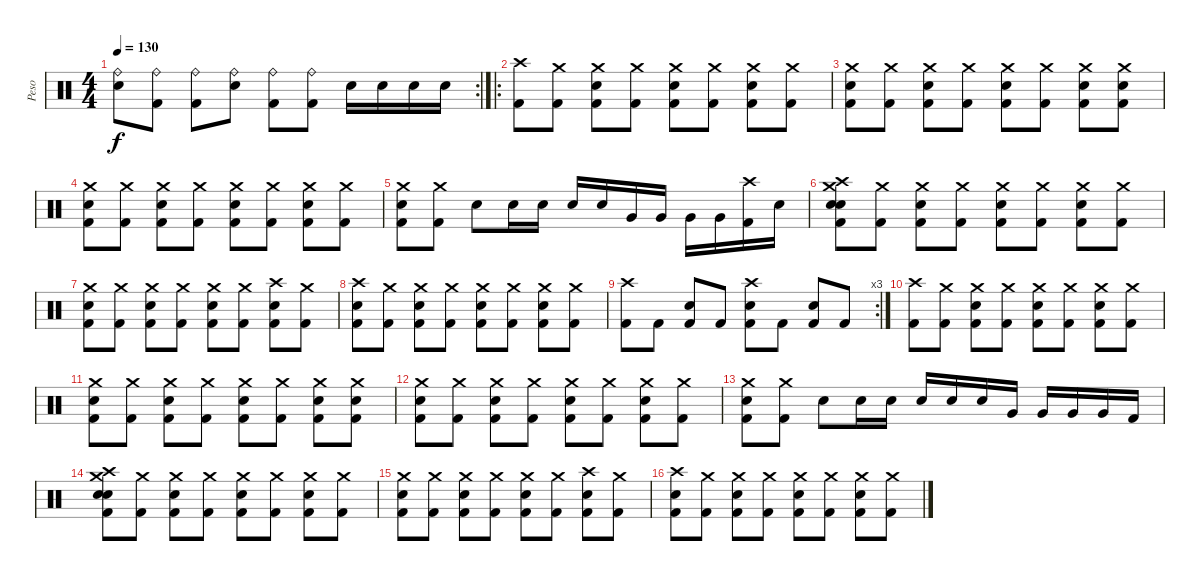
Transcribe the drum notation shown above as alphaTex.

\track ("Peso" "Peso") {instrument percussion}
\staff {score}
\articulation defaults
\rc 2
\ts (4 4)
\tempo 130
\clef neutral
\ks c
("Ride (bell)" "Snare (hit) 2").8{dy f} ("Ride (bell)" "Kick (hit) 2").8 ("Ride (bell)" "Kick (hit) 2").8 ("Ride (bell)" "Snare (hit) 2").8 ("Ride (bell)" "Kick (hit) 2").8 ("Ride (bell)" "Kick (hit) 2").8 "Snare (hit) 2".16 "Snare (hit) 2".16 "Snare (hit) 2".16 "Snare (hit) 2".16 |
\ro
("Crash high (hit)" "Kick (hit) 2").8 ("Crash medium (hit)" "Kick (hit) 2").8 ("Crash medium (hit)" "Snare (hit) 2" "Kick (hit) 2").8 ("Crash medium (hit)" "Kick (hit) 2").8 ("Crash medium (hit)" "Snare (hit) 2" "Kick (hit) 2").8 ("Crash medium (hit)" "Kick (hit) 2").8 ("Crash medium (hit)" "Snare (hit) 2" "Kick (hit) 2").8 ("Crash medium (hit)" "Kick (hit) 2").8 |
("Crash medium (hit)" "Snare (hit) 2" "Kick (hit) 2").8 ("Crash medium (hit)" "Kick (hit) 2").8 ("Crash medium (hit)" "Snare (hit) 2" "Kick (hit) 2").8 ("Crash medium (hit)" "Kick (hit) 2").8 ("Crash medium (hit)" "Snare (hit) 2" "Kick (hit) 2").8 ("Crash medium (hit)" "Kick (hit) 2").8 ("Crash medium (hit)" "Snare (hit) 2" "Kick (hit) 2").8 ("Crash medium (hit)" "Snare (hit) 2" "Kick (hit) 2").8 |
("Crash medium (hit)" "Snare (hit) 2" "Kick (hit) 2").8 ("Crash medium (hit)" "Kick (hit) 2").8 ("Crash medium (hit)" "Snare (hit) 2" "Kick (hit) 2").8 ("Crash medium (hit)" "Kick (hit) 2").8 ("Crash medium (hit)" "Snare (hit) 2" "Kick (hit) 2").8 ("Crash medium (hit)" "Kick (hit) 2").8 ("Crash medium (hit)" "Snare (hit) 2" "Kick (hit) 2").8 ("Crash medium (hit)" "Kick (hit) 2").8 |
("Crash medium (hit)" "Snare (hit) 2" "Kick (hit) 2").8 ("Crash medium (hit)" "Kick (hit) 2").8 "Snare (hit) 2".8 "Snare (hit) 2".16 "Snare (hit) 2".16 "Snare (hit) 2".16 "Snare (hit) 2".16 "Very Low Tom (hit)".16 "Very Low Tom (hit)".16 "Very Low Tom (hit)".16 "Very Low Tom (hit)".16 ("Crash high (hit)" "Kick (hit) 2").16 "Snare (hit)"{x}.16 |
("Crash high (hit)" "Crash medium (hit)" "Snare (hit) 2" "Kick (hit) 2" "Snare (hit)").8 ("Crash medium (hit)" "Kick (hit) 2").8 ("Crash medium (hit)" "Snare (hit) 2" "Kick (hit) 2").8 ("Crash medium (hit)" "Kick (hit) 2").8 ("Crash medium (hit)" "Snare (hit) 2" "Kick (hit) 2").8 ("Crash medium (hit)" "Kick (hit) 2").8 ("Crash medium (hit)" "Snare (hit) 2" "Kick (hit) 2").8 ("Crash medium (hit)" "Kick (hit) 2").8 |
("Crash medium (hit)" "Snare (hit) 2" "Kick (hit) 2").8 ("Crash medium (hit)" "Kick (hit) 2").8 ("Crash medium (hit)" "Snare (hit) 2" "Kick (hit) 2").8 ("Crash medium (hit)" "Kick (hit) 2").8 ("Crash medium (hit)" "Snare (hit) 2" "Kick (hit) 2").8 ("Crash medium (hit)" "Kick (hit) 2").8 ("Crash high (hit)" "Snare (hit) 2" "Kick (hit) 2").8 ("Crash medium (hit)" "Kick (hit) 2").8 |
("Crash high (hit)" "Snare (hit) 2" "Kick (hit) 2").8 ("Crash medium (hit)" "Kick (hit) 2").8 ("Crash medium (hit)" "Snare (hit) 2" "Kick (hit) 2").8 ("Crash medium (hit)" "Kick (hit) 2").8 ("Crash medium (hit)" "Snare (hit) 2" "Kick (hit) 2").8 ("Crash medium (hit)" "Kick (hit) 2").8 ("Crash medium (hit)" "Snare (hit) 2" "Kick (hit) 2").8 ("Crash medium (hit)" "Kick (hit) 2").8 |
\rc 3
("Crash high (hit)" "Kick (hit) 2").8 "Kick (hit) 2".8 ("Snare (hit) 2" "Kick (hit) 2").8 "Kick (hit) 2".8 ("Crash high (hit)" "Snare (hit) 2" "Kick (hit) 2").8 "Kick (hit) 2".8 ("Snare (hit) 2" "Kick (hit) 2").8 "Kick (hit) 2".8 |
("Crash high (hit)" "Kick (hit) 2").8 ("Crash medium (hit)" "Kick (hit) 2").8 ("Crash medium (hit)" "Snare (hit) 2" "Kick (hit) 2").8 ("Crash medium (hit)" "Kick (hit) 2").8 ("Crash medium (hit)" "Snare (hit) 2" "Kick (hit) 2").8 ("Crash medium (hit)" "Kick (hit) 2").8 ("Crash medium (hit)" "Snare (hit) 2" "Kick (hit) 2").8 ("Crash medium (hit)" "Kick (hit) 2").8 |
("Crash medium (hit)" "Snare (hit) 2" "Kick (hit) 2").8 ("Crash medium (hit)" "Kick (hit) 2").8 ("Crash medium (hit)" "Snare (hit) 2" "Kick (hit) 2").8 ("Crash medium (hit)" "Kick (hit) 2").8 ("Crash medium (hit)" "Snare (hit) 2" "Kick (hit) 2").8 ("Crash medium (hit)" "Kick (hit) 2").8 ("Crash medium (hit)" "Snare (hit) 2" "Kick (hit) 2").8 ("Crash medium (hit)" "Snare (hit) 2" "Kick (hit) 2").8 |
("Crash medium (hit)" "Snare (hit) 2" "Kick (hit) 2").8 ("Crash medium (hit)" "Kick (hit) 2").8 ("Crash medium (hit)" "Snare (hit) 2" "Kick (hit) 2").8 ("Crash medium (hit)" "Kick (hit) 2").8 ("Crash medium (hit)" "Snare (hit) 2" "Kick (hit) 2").8 ("Crash medium (hit)" "Kick (hit) 2").8 ("Crash medium (hit)" "Snare (hit) 2" "Kick (hit) 2").8 ("Crash medium (hit)" "Kick (hit) 2").8 |
("Crash medium (hit)" "Snare (hit) 2" "Kick (hit) 2").8 ("Crash medium (hit)" "Kick (hit) 2").8 "Snare (hit) 2".8 "Snare (hit) 2".16 "Snare (hit) 2".16 "Snare (hit) 2".16 "Snare (hit) 2".16 "Snare (hit) 2".16 "Very Low Tom (hit)".16 "Very Low Tom (hit)".16 "Very Low Tom (hit)".16 "Very Low Tom (hit)".16 "Kick (hit) 2".16 |
("Crash high (hit)" "Crash medium (hit)" "Snare (hit) 2" "Kick (hit) 2" "Snare (hit)").8 ("Crash medium (hit)" "Kick (hit) 2").8 ("Crash medium (hit)" "Snare (hit) 2" "Kick (hit) 2").8 ("Crash medium (hit)" "Kick (hit) 2").8 ("Crash medium (hit)" "Snare (hit) 2" "Kick (hit) 2").8 ("Crash medium (hit)" "Kick (hit) 2").8 ("Crash medium (hit)" "Snare (hit) 2" "Kick (hit) 2").8 ("Crash medium (hit)" "Kick (hit) 2").8 |
("Crash medium (hit)" "Snare (hit) 2" "Kick (hit) 2").8 ("Crash medium (hit)" "Kick (hit) 2").8 ("Crash medium (hit)" "Snare (hit) 2" "Kick (hit) 2").8 ("Crash medium (hit)" "Kick (hit) 2").8 ("Crash medium (hit)" "Snare (hit) 2" "Kick (hit) 2").8 ("Crash medium (hit)" "Kick (hit) 2").8 ("Crash high (hit)" "Snare (hit) 2" "Kick (hit) 2").8 ("Crash medium (hit)" "Kick (hit) 2").8 |
("Crash high (hit)" "Snare (hit) 2" "Kick (hit) 2").8 ("Crash medium (hit)" "Kick (hit) 2").8 ("Crash medium (hit)" "Snare (hit) 2" "Kick (hit) 2").8 ("Crash medium (hit)" "Kick (hit) 2").8 ("Crash medium (hit)" "Snare (hit) 2" "Kick (hit) 2").8 ("Crash medium (hit)" "Kick (hit) 2").8 ("Crash medium (hit)" "Snare (hit) 2" "Kick (hit) 2").8 ("Crash medium (hit)" "Kick (hit) 2").8
